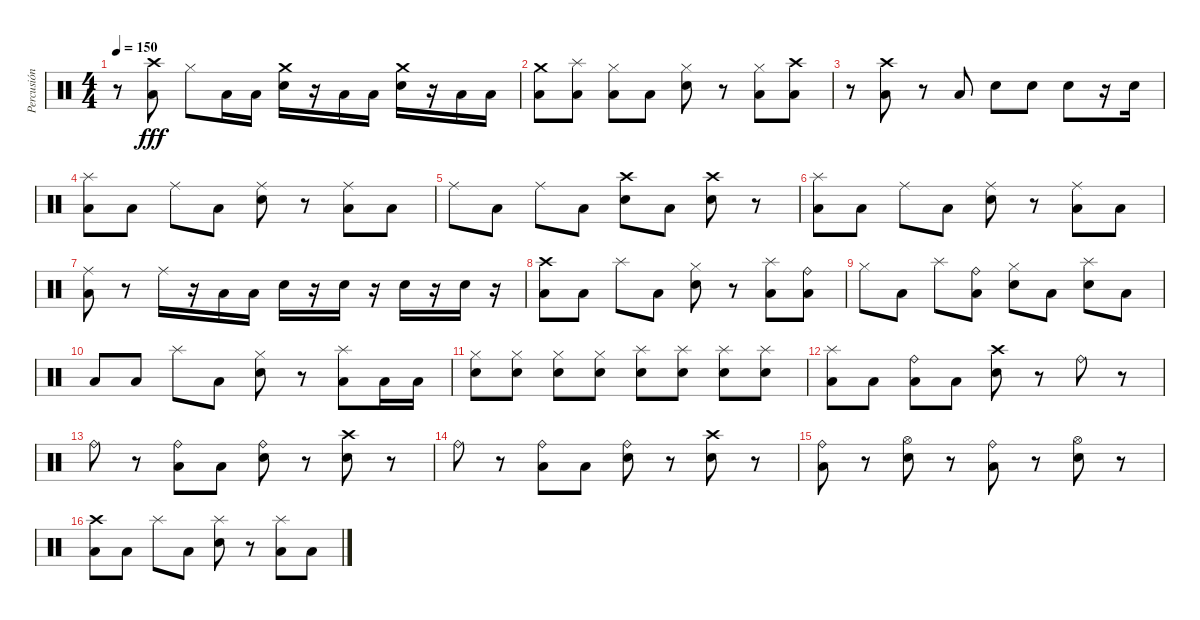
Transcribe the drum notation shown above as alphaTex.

\track ("Percusión" "Percusión") {instrument percussion}
\staff {score}
\articulation defaults
\ts (4 4)
\tempo 150
\clef neutral
\ks c
r.8{dy fff} ("Crash high (hit)" "Low Tom (hit)").8 "Hi-Hat (closed)".8 "Low Tom (hit)".16 "Low Tom (hit)".16 ("Crash medium (hit)" "Snare (hit) 2").16 r.16 "Low Tom (hit)".16 "Low Tom (hit)".16 ("Crash medium (hit)" "Snare (hit) 2").16 r.16 "Low Tom (hit)".16 "Low Tom (hit)".16 |
("Crash medium (hit)" "Low Tom (hit)").8 ("Splash (hit)" "Low Tom (hit)").8 ("Hi-Hat (closed)" "Low Tom (hit)").8 "Low Tom (hit)".8 ("Hi-Hat (closed)" "Snare (hit) 2").8 r.8 ("Hi-Hat (closed)" "Low Tom (hit)").8 ("Crash high (hit)" "Low Tom (hit)").8 |
r.8 ("Crash high (hit)" "Low Tom (hit)").8 r.8 "Low Tom (hit)".8 "Snare (hit) 2".8 "Snare (hit) 2".8 "Snare (hit) 2".8 r.16 "Snare (hit) 2".16 |
("Splash (hit)" "Low Tom (hit)").8 "Low Tom (hit)".8 "Ride (middle)".8 "Low Tom (hit)".8 ("Ride (middle)" "Snare (hit) 2").8 r.8 ("Ride (middle)" "Low Tom (hit)").8 "Low Tom (hit)".8 |
"Ride (middle)".8 "Low Tom (hit)".8 "Ride (middle)".8 "Low Tom (hit)".8 ("Crash high (hit)" "Snare (hit) 2").8 "Low Tom (hit)".8 ("Crash high (hit)" "Snare (hit) 2").8 r.8 |
("Splash (hit)" "Low Tom (hit)").8 "Low Tom (hit)".8 "Ride (middle)".8 "Low Tom (hit)".8 ("Ride (middle)" "Snare (hit) 2").8 r.8 ("Ride (middle)" "Low Tom (hit)").8 "Low Tom (hit)".8 |
("Ride (middle)" "Low Tom (hit)").8 r.8 "Ride (middle)".16 r.16 "Low Tom (hit)".16 "Low Tom (hit)".16 "Snare (hit) 2".16 r.16 "Snare (hit) 2".16 r.16 "Snare (hit) 2".16 r.16 "Snare (hit) 2".16 r.16 |
("Crash high (hit)" "Low Tom (hit)").8 "Low Tom (hit)".8 "Splash (hit)".8 "Low Tom (hit)".8 ("Hi-Hat (closed)" "Snare (hit) 2").8 r.8 ("Splash (hit)" "Low Tom (hit)").8 ("Ride (bell)" "Low Tom (hit)").8 |
"Hi-Hat (closed)".8 "Low Tom (hit)".8 "Splash (hit)".8 ("Ride (bell)" "Low Tom (hit)").8 ("Hi-Hat (closed)" "Snare (hit) 2").8 "Low Tom (hit)".8 ("Splash (hit)" "Snare (hit) 2").8 "Low Tom (hit)".8 |
"Low Tom (hit)".8 "Low Tom (hit)".8 "Splash (hit)".8 "Low Tom (hit)".8 ("Hi-Hat (closed)" "Snare (hit) 2").8 r.8 ("Splash (hit)" "Low Tom (hit)").8 "Low Tom (hit)".16 "Low Tom (hit)".16 |
("Hi-Hat (closed)" "Snare (hit) 2").8 ("Hi-Hat (closed)" "Snare (hit) 2").8 ("Hi-Hat (closed)" "Snare (hit) 2").8 ("Hi-Hat (closed)" "Snare (hit) 2").8 ("Splash (hit)" "Snare (hit) 2").8 ("Splash (hit)" "Snare (hit) 2").8 ("Splash (hit)" "Snare (hit) 2").8 ("Splash (hit)" "Snare (hit) 2").8 |
("Splash (hit)" "Low Tom (hit)").8 "Low Tom (hit)".8 ("Ride (bell)" "Low Tom (hit)").8 "Low Tom (hit)".8 ("Crash high (hit)" "Snare (hit) 2").8 r.8 "Ride (bell)".8 r.8 |
"Ride (bell)".8 r.8 ("Ride (bell)" "Low Tom (hit)").8 "Low Tom (hit)".8 ("Ride (bell)" "Snare (hit) 2").8 r.8 ("Crash high (hit)" "Snare (hit) 2").8 r.8 |
"Ride (bell)".8 r.8 ("Ride (bell)" "Low Tom (hit)").8 "Low Tom (hit)".8 ("Ride (bell)" "Snare (hit) 2").8 r.8 ("Crash high (hit)" "Snare (hit) 2").8 r.8 |
("Ride (bell)" "Low Tom (hit)").8 r.8 ("Hi-Hat (open)" "Snare (hit) 2").8 r.8 ("Ride (bell)" "Low Tom (hit)").8 r.8 ("Hi-Hat (open)" "Snare (hit) 2").8 r.8 |
("Crash high (hit)" "Low Tom (hit)").8 "Low Tom (hit)".8 "Splash (hit)".8 "Low Tom (hit)".8 ("Splash (hit)" "Snare (hit) 2").8 r.8 ("Splash (hit)" "Low Tom (hit)").8 "Low Tom (hit)".8
